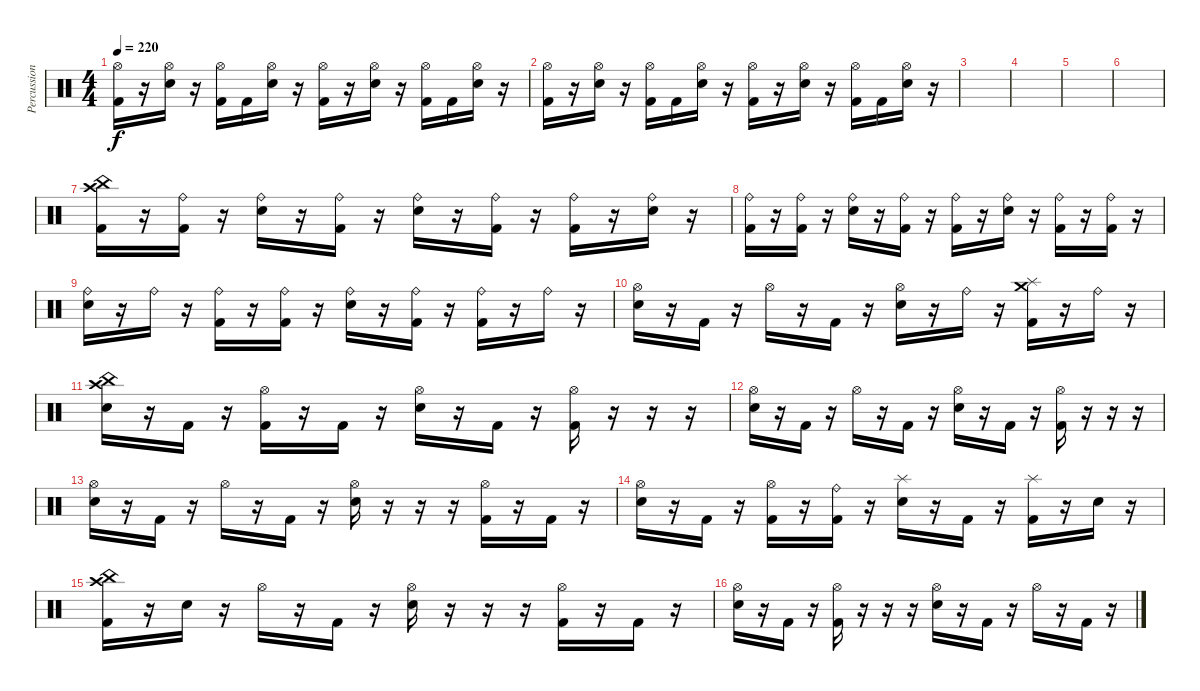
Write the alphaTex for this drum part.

\track ("Percussion" "Percussion") {instrument percussion}
\staff {score}
\articulation defaults
\ts (4 4)
\tempo 220
\clef neutral
\ks c
("Hi-Hat (open)" "Kick (hit) 2").16{dy f} r.16 ("Hi-Hat (open)" "Electric Snare (hit)").16 r.16 ("Hi-Hat (open)" "Kick (hit) 2").16 "Kick (hit) 2".16 ("Hi-Hat (open)" "Electric Snare (hit)").16 r.16 ("Hi-Hat (open)" "Kick (hit) 2").16 r.16 ("Hi-Hat (open)" "Electric Snare (hit)").16 r.16 ("Hi-Hat (open)" "Kick (hit) 2").16 "Kick (hit) 2".16 ("Hi-Hat (open)" "Electric Snare (hit)").16 r.16 |
("Hi-Hat (open)" "Kick (hit) 2").16 r.16 ("Hi-Hat (open)" "Electric Snare (hit)").16 r.16 ("Hi-Hat (open)" "Kick (hit) 2").16 "Kick (hit) 2".16 ("Hi-Hat (open)" "Electric Snare (hit)").16 r.16 ("Hi-Hat (open)" "Kick (hit) 2").16 r.16 ("Hi-Hat (open)" "Electric Snare (hit)").16 r.16 ("Hi-Hat (open)" "Kick (hit) 2").16 "Kick (hit) 2".16 ("Hi-Hat (open)" "Electric Snare (hit)").16 r.16 |
|
|
|
|
("Crash high (hit)" "China (hit)" "Kick (hit) 2").16 r.16 ("Ride (bell)" "Kick (hit) 2").16 r.16 ("Ride (bell)" "Electric Snare (hit)").16 r.16 ("Ride (bell)" "Kick (hit) 2").16 r.16 ("Ride (bell)" "Electric Snare (hit)").16 r.16 ("Ride (bell)" "Kick (hit) 2").16 r.16 ("Ride (bell)" "Kick (hit) 2").16 r.16 ("Ride (bell)" "Electric Snare (hit)").16 r.16 |
("Ride (bell)" "Kick (hit) 2").16 r.16 ("Ride (bell)" "Kick (hit) 2").16 r.16 ("Ride (bell)" "Electric Snare (hit)").16 r.16 ("Ride (bell)" "Kick (hit) 2").16 r.16 ("Ride (bell)" "Kick (hit) 2").16 r.16 ("Ride (bell)" "Electric Snare (hit)").16 r.16 ("Ride (bell)" "Kick (hit) 2").16 r.16 ("Ride (bell)" "Kick (hit) 2").16 r.16 |
("Ride (bell)" "Electric Snare (hit)").16 r.16 "Ride (bell)".16 r.16 ("Ride (bell)" "Kick (hit) 2").16 r.16 ("Ride (bell)" "Kick (hit) 2").16 r.16 ("Ride (bell)" "Electric Snare (hit)").16 r.16 ("Ride (bell)" "Kick (hit) 2").16 r.16 ("Ride (bell)" "Kick (hit) 2").16 r.16 "Ride (bell)".16 r.16 |
("Hi-Hat (open)" "Electric Snare (hit)").16 r.16 "Kick (hit) 2".16 r.16 "Hi-Hat (open)".16 r.16 "Kick (hit) 2".16 r.16 ("Hi-Hat (open)" "Electric Snare (hit)").16 r.16 "Ride (bell)".16 r.16 ("Splash (hit)" "Crash medium (hit)" "Kick (hit) 2").16 r.16 "Ride (bell)".16 r.16 |
("Crash high (hit)" "China (hit)" "Electric Snare (hit)").16 r.16 "Kick (hit) 2".16 r.16 ("Hi-Hat (open)" "Kick (hit) 2").16 r.16 "Kick (hit) 2".16 r.16 ("Hi-Hat (open)" "Electric Snare (hit)").16 r.16 "Kick (hit) 2".16 r.16 ("Hi-Hat (open)" "Kick (hit) 2").16 r.16 r.16 r.16 |
("Hi-Hat (open)" "Electric Snare (hit)").16 r.16 "Kick (hit) 2".16 r.16 "Hi-Hat (open)".16 r.16 "Kick (hit) 2".16 r.16 ("Hi-Hat (open)" "Electric Snare (hit)").16 r.16 "Kick (hit) 2".16 r.16 ("Hi-Hat (open)" "Kick (hit) 2").16 r.16 r.16 r.16 |
("Hi-Hat (open)" "Electric Snare (hit)").16 r.16 "Kick (hit) 2".16 r.16 "Hi-Hat (open)".16 r.16 "Kick (hit) 2".16 r.16 ("Hi-Hat (open)" "Electric Snare (hit)").16 r.16 r.16 r.16 ("Hi-Hat (open)" "Kick (hit) 2").16 r.16 "Kick (hit) 2".16 r.16 |
("Hi-Hat (open)" "Electric Snare (hit)").16 r.16 "Kick (hit) 2".16 r.16 ("Hi-Hat (open)" "Kick (hit) 2").16 r.16 ("Ride (bell)" "Kick (hit) 2").16 r.16 ("Splash (hit)" "Electric Snare (hit)").16 r.16 "Kick (hit) 2".16 r.16 ("Splash (hit)" "Kick (hit) 2").16 r.16 "Electric Snare (hit)".16 r.16 |
("Crash high (hit)" "China (hit)" "Kick (hit) 2").16 r.16 "Electric Snare (hit)".16 r.16 "Hi-Hat (open)".16 r.16 "Kick (hit) 2".16 r.16 ("Hi-Hat (open)" "Electric Snare (hit)").16 r.16 r.16 r.16 ("Hi-Hat (open)" "Kick (hit) 2").16 r.16 "Kick (hit) 2".16 r.16 |
("Hi-Hat (open)" "Electric Snare (hit)").16 r.16 "Kick (hit) 2".16 r.16 ("Hi-Hat (open)" "Kick (hit) 2").16 r.16 r.16 r.16 ("Hi-Hat (open)" "Electric Snare (hit)").16 r.16 "Kick (hit) 2".16 r.16 "Hi-Hat (open)".16 r.16 "Kick (hit) 2".16 r.16
